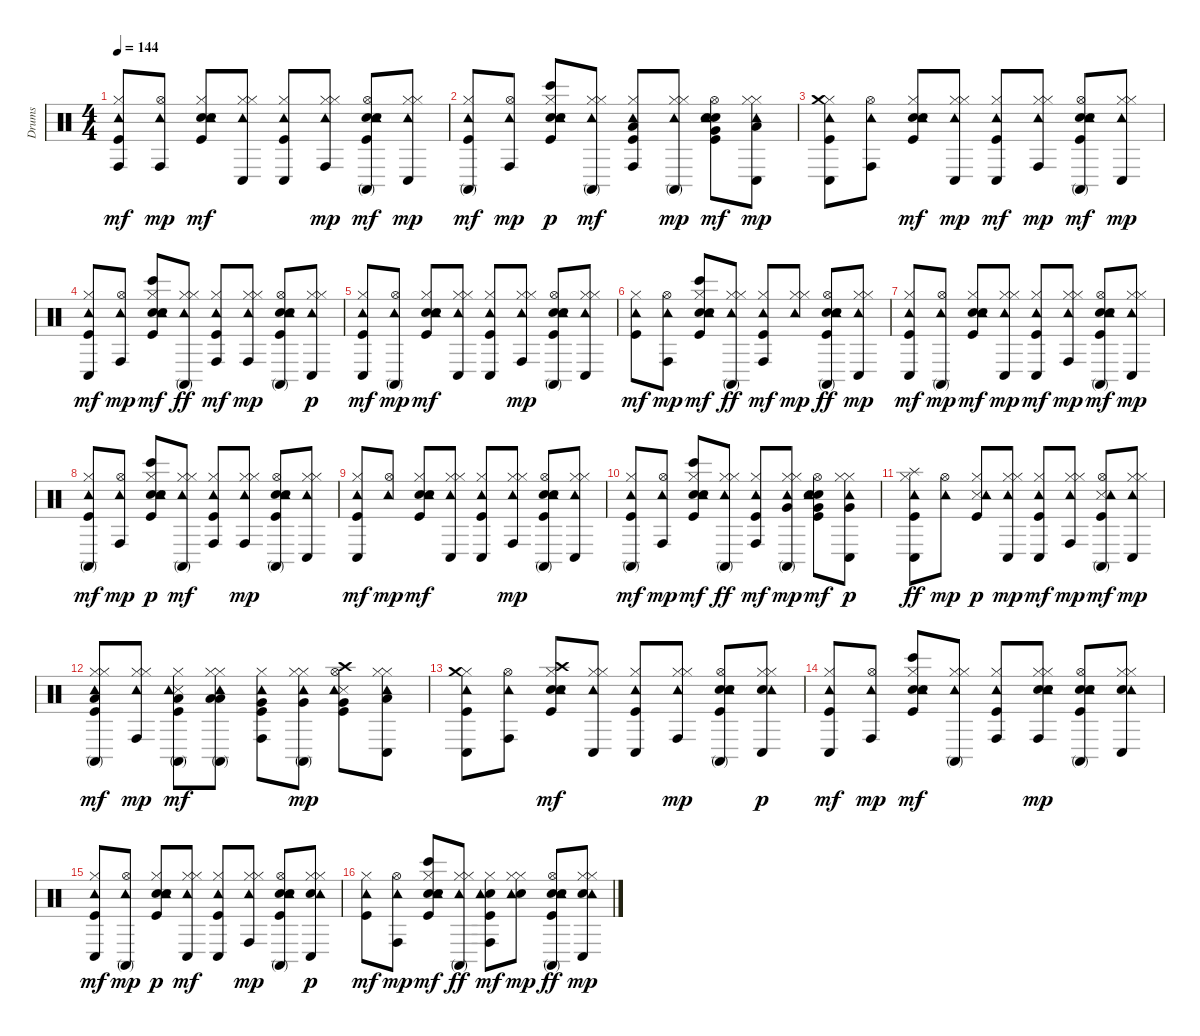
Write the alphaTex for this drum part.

\track ("Drums" "Drums") {instrument percussion}
\staff {score}
\articulation defaults
\ts (4 4)
\tempo 144
\clef neutral
\ks c
("Kick (hit)" "Hi-Hat (closed)" "Tambourine (hit)" "Conga high (hit)").8{dy mf} ("Hi-Hat (open)" "Tambourine (hit)" "Conga high (hit)").8{dy mp} ("Kick (hit)" "Snare (hit) 2" "Hand Clap (hit)" "Hi-Hat (closed)" "Tambourine (hit)").8{dy mf} ("Hi-Hat (closed)" "Tambourine (hit)" "Conga low (hit)" "Hi-Hat (closed)").8 ("Kick (hit)" "Hi-Hat (closed)" "Tambourine (hit)" "Conga low (hit)").8 ("Hi-Hat (closed)" "Tambourine (hit)" "Conga high (hit)" "Hi-Hat (closed)").8{dy mp} ("Kick (hit)" "Snare (hit) 2" "Hand Clap (hit)" "Hi-Hat (open)" "Tambourine (hit)" "Conga high (mute)").8{dy mf} ("Hi-Hat (closed)" "Tambourine (hit)" "Conga low (hit)" "Hi-Hat (closed)").8{dy mp} |
("Kick (hit)" "Hi-Hat (closed)" "Tambourine (hit)" "Conga high (mute)").8{dy mf} ("Hi-Hat (open)" "Tambourine (hit)" "Conga high (hit)").8{dy mp} ("Kick (hit)" "Snare (hit) 2" "Hand Clap (hit)" "Hi-Hat (closed)" "Tambourine (hit)" "Bongo High (hit)").8{dy p} ("Hi-Hat (closed)" "Tambourine (hit)" "Conga high (mute)" "Hi-Hat (closed)").8{dy mf} ("Kick (hit)" "Hi-Hat (closed)" "Low Tom (hit)" "Tambourine (hit)" "Conga high (hit)").8 ("Hi-Hat (closed)" "Tambourine (hit)" "Conga high (mute)" "Hi-Hat (closed)").8{dy mp} ("Kick (hit)" "Snare (hit) 2" "Hand Clap (hit)" "Very Low Tom (hit)" "Hi-Hat (open)" "Tambourine (hit)").8{dy mf} ("Low Floor Tom (hit)" "Hi-Hat (closed)" "Tambourine (hit)" "Conga low (hit)" "Hi-Hat (closed)").8{dy mp} |
("Kick (hit)" "Hi-Hat (closed)" "Tambourine (hit)" "Crash medium (hit)" "Conga low (hit)").8 ("Hi-Hat (open)" "Tambourine (hit)" "Conga high (hit)").8 ("Kick (hit)" "Snare (hit) 2" "Hand Clap (hit)" "Hi-Hat (closed)" "Tambourine (hit)").8{dy mf} ("Hi-Hat (closed)" "Tambourine (hit)" "Conga low (hit)" "Hi-Hat (closed)").8{dy mp} ("Kick (hit)" "Hi-Hat (closed)" "Tambourine (hit)" "Conga low (hit)").8{dy mf} ("Hi-Hat (closed)" "Tambourine (hit)" "Conga high (hit)" "Hi-Hat (closed)").8{dy mp} ("Kick (hit)" "Snare (hit) 2" "Hand Clap (hit)" "Hi-Hat (open)" "Tambourine (hit)" "Conga high (mute)").8{dy mf} ("Hi-Hat (closed)" "Tambourine (hit)" "Conga low (hit)" "Hi-Hat (closed)").8{dy mp} |
("Kick (hit)" "Hi-Hat (closed)" "Tambourine (hit)" "Conga low (hit)").8{dy mf} ("Hi-Hat (open)" "Tambourine (hit)" "Conga high (hit)").8{dy mp} ("Kick (hit)" "Snare (hit) 2" "Hand Clap (hit)" "Hi-Hat (closed)" "Tambourine (hit)" "Bongo High (hit)").8{dy mf} ("Hi-Hat (closed)" "Tambourine (hit)" "Conga high (mute)" "Hi-Hat (closed)").8{dy ff} ("Kick (hit)" "Hi-Hat (closed)" "Tambourine (hit)" "Conga high (hit)").8{dy mf} ("Hi-Hat (closed)" "Tambourine (hit)" "Conga high (hit)" "Hi-Hat (closed)").8{dy mp} ("Kick (hit)" "Snare (hit) 2" "Hand Clap (hit)" "Hi-Hat (open)" "Tambourine (hit)" "Conga high (mute)").8 ("Hi-Hat (closed)" "Tambourine (hit)" "Conga low (hit)" "Hi-Hat (closed)").8{dy p} |
("Kick (hit)" "Hi-Hat (closed)" "Tambourine (hit)" "Conga low (hit)").8{dy mf} ("Hi-Hat (open)" "Tambourine (hit)" "Conga high (mute)").8{dy mp} ("Kick (hit)" "Snare (hit) 2" "Hand Clap (hit)" "Hi-Hat (closed)" "Tambourine (hit)").8{dy mf} ("Hi-Hat (closed)" "Tambourine (hit)" "Conga low (hit)" "Hi-Hat (closed)").8 ("Kick (hit)" "Hi-Hat (closed)" "Tambourine (hit)" "Conga low (hit)").8 ("Hi-Hat (closed)" "Tambourine (hit)" "Conga high (hit)" "Hi-Hat (closed)").8{dy mp} ("Kick (hit)" "Snare (hit) 2" "Hand Clap (hit)" "Hi-Hat (open)" "Tambourine (hit)" "Conga high (mute)").8 ("Hi-Hat (closed)" "Tambourine (hit)" "Conga low (hit)" "Hi-Hat (closed)").8 |
("Kick (hit)" "Hi-Hat (closed)" "Tambourine (hit)").8{dy mf} ("Hi-Hat (open)" "Tambourine (hit)" "Conga high (hit)").8{dy mp} ("Kick (hit)" "Snare (hit) 2" "Hand Clap (hit)" "Hi-Hat (closed)" "Tambourine (hit)" "Bongo High (hit)").8{dy mf} ("Hi-Hat (closed)" "Tambourine (hit)" "Conga high (mute)" "Hi-Hat (closed)").8{dy ff} ("Kick (hit)" "Hi-Hat (closed)" "Tambourine (hit)" "Conga high (hit)").8{dy mf} ("Hi-Hat (closed)" "Tambourine (hit)" "Hi-Hat (closed)").8{dy mp} ("Kick (hit)" "Snare (hit) 2" "Hand Clap (hit)" "Hi-Hat (open)" "Tambourine (hit)" "Conga high (mute)").8{dy ff} ("Hi-Hat (closed)" "Tambourine (hit)" "Conga low (hit)" "Hi-Hat (closed)").8{dy mp} |
("Kick (hit)" "Hi-Hat (closed)" "Tambourine (hit)" "Conga low (hit)").8{dy mf} ("Hi-Hat (open)" "Tambourine (hit)" "Conga high (mute)").8{dy mp} ("Kick (hit)" "Snare (hit) 2" "Hand Clap (hit)" "Hi-Hat (closed)" "Tambourine (hit)").8{dy mf} ("Hi-Hat (closed)" "Tambourine (hit)" "Conga low (hit)" "Hi-Hat (closed)").8{dy mp} ("Kick (hit)" "Hi-Hat (closed)" "Tambourine (hit)" "Conga low (hit)").8{dy mf} ("Hi-Hat (closed)" "Tambourine (hit)" "Conga high (hit)" "Hi-Hat (closed)").8{dy mp} ("Kick (hit)" "Snare (hit) 2" "Hand Clap (hit)" "Hi-Hat (open)" "Tambourine (hit)" "Conga high (mute)").8{dy mf} ("Hi-Hat (closed)" "Tambourine (hit)" "Conga low (hit)" "Hi-Hat (closed)").8{dy mp} |
("Kick (hit)" "Hi-Hat (closed)" "Tambourine (hit)" "Conga high (mute)").8{dy mf} ("Hi-Hat (open)" "Tambourine (hit)" "Conga high (hit)").8{dy mp} ("Kick (hit)" "Snare (hit) 2" "Hand Clap (hit)" "Hi-Hat (closed)" "Tambourine (hit)" "Bongo High (hit)").8{dy p} ("Hi-Hat (closed)" "Tambourine (hit)" "Conga high (mute)" "Hi-Hat (closed)").8{dy mf} ("Kick (hit)" "Hi-Hat (closed)" "Tambourine (hit)" "Conga high (hit)").8 ("Hi-Hat (closed)" "Tambourine (hit)" "Conga high (hit)" "Hi-Hat (closed)").8{dy mp} ("Kick (hit)" "Snare (hit) 2" "Hand Clap (hit)" "Hi-Hat (open)" "Tambourine (hit)" "Conga high (mute)").8 ("Hi-Hat (closed)" "Tambourine (hit)" "Conga low (hit)" "Hi-Hat (closed)").8 |
("Kick (hit)" "Hi-Hat (closed)" "Tambourine (hit)" "Conga low (hit)").8{dy mf} ("Hi-Hat (open)" "Tambourine (hit)").8{dy mp} ("Kick (hit)" "Snare (hit) 2" "Hand Clap (hit)" "Hi-Hat (closed)" "Tambourine (hit)").8{dy mf} ("Hi-Hat (closed)" "Tambourine (hit)" "Conga low (hit)" "Hi-Hat (closed)").8 ("Kick (hit)" "Hi-Hat (closed)" "Tambourine (hit)" "Conga low (hit)").8 ("Hi-Hat (closed)" "Tambourine (hit)" "Conga high (hit)" "Hi-Hat (closed)").8{dy mp} ("Kick (hit)" "Snare (hit) 2" "Hand Clap (hit)" "Hi-Hat (open)" "Tambourine (hit)" "Conga high (mute)").8 ("Hi-Hat (closed)" "Tambourine (hit)" "Conga low (hit)" "Hi-Hat (closed)").8 |
("Kick (hit)" "Hi-Hat (closed)" "Tambourine (hit)" "Conga high (mute)").8{dy mf} ("Hi-Hat (open)" "Tambourine (hit)" "Conga high (hit)").8{dy mp} ("Kick (hit)" "Snare (hit) 2" "Hand Clap (hit)" "Hi-Hat (closed)" "Tambourine (hit)" "Bongo High (hit)").8{dy mf} ("Hi-Hat (closed)" "Tambourine (hit)" "Conga high (mute)" "Hi-Hat (closed)").8{dy ff} ("Kick (hit)" "Hi-Hat (closed)" "Tambourine (hit)" "Conga high (hit)").8{dy mf} ("Hi-Hat (closed)" "Very Low Tom (hit)" "Tambourine (hit)" "Conga high (mute)" "Hi-Hat (closed)").8{dy mp} ("Kick (hit)" "Snare (hit) 2" "Hand Clap (hit)" "Very Low Tom (hit)" "Hi-Hat (open)" "Tambourine (hit)").8{dy mf} ("Hi-Hat (closed)" "Very Low Tom (hit)" "Tambourine (hit)" "Conga low (hit)" "Hi-Hat (closed)").8{dy p} |
("Kick (hit)" "Hi-Hat (closed)" "Tambourine (hit)" "Splash (hit)" "Conga low (hit)").8{dy ff} ("Hi-Hat (open)" "Tambourine (hit)").8{dy mp} ("Kick (hit)" "Snare (side stick) 3" "Hi-Hat (closed)" "Tambourine (hit)").8{dy p} ("Hi-Hat (closed)" "Tambourine (hit)" "Conga low (hit)" "Hi-Hat (closed)").8{dy mp} ("Kick (hit)" "Hi-Hat (closed)" "Tambourine (hit)" "Conga low (hit)").8{dy mf} ("Hi-Hat (closed)" "Tambourine (hit)" "Conga high (hit)" "Hi-Hat (closed)").8{dy mp} ("Kick (hit)" "Snare (side stick) 3" "Hi-Hat (open)" "Tambourine (hit)" "Conga high (mute)").8{dy mf} ("Hi-Hat (closed)" "Tambourine (hit)" "Conga low (hit)" "Hi-Hat (closed)").8{dy mp} |
("Kick (hit)" "Low Floor Tom (hit)" "Hi-Hat (closed)" "Tambourine (hit)" "Hi-Hat (closed)" "Conga high (mute)").8{dy mf} ("Hi-Hat (closed)" "Tambourine (hit)" "Conga high (hit)" "Hi-Hat (closed)").8{dy mp} ("Kick (hit)" "Snare (side stick) 3" "Hi-Hat (closed)" "Tambourine (hit)" "Conga high (mute)" "Low Floor Tom (hit)").8{dy mf} ("Low Floor Tom (hit)" "Hi-Hat (closed)" "Tambourine (hit)" "Conga high (mute)" "Low Floor Tom (hit)" "Hi-Hat (closed)").8 ("Kick (hit)" "Hi-Hat (closed)" "Tambourine (hit)" "Conga high (hit)" "Very Low Tom (hit)").8 ("Hi-Hat (closed)" "Very Low Tom (hit)" "Tambourine (hit)" "Conga high (mute)" "Hi-Hat (closed)").8{dy mp} ("Kick (hit)" "Snare (side stick) 3" "Very Low Tom (hit)" "Hi-Hat (open)" "Crash high (hit)" "Tambourine (hit)").8 ("Low Floor Tom (hit)" "Hi-Hat (closed)" "Tambourine (hit)" "Conga low (hit)" "Hi-Hat (closed)").8 |
("Kick (hit)" "Hi-Hat (closed)" "Tambourine (hit)" "Crash medium (hit)" "Conga low (hit)").8 ("Hi-Hat (open)" "Tambourine (hit)" "Conga high (hit)").8 ("Kick (hit)" "Snare (hit) 2" "Hand Clap (hit)" "Hi-Hat (closed)" "Crash high (hit)" "Tambourine (hit)").8{dy mf} ("Hi-Hat (closed)" "Tambourine (hit)" "Conga low (hit)" "Hi-Hat (closed)").8 ("Kick (hit)" "Hi-Hat (closed)" "Tambourine (hit)" "Conga low (hit)").8 ("Hi-Hat (closed)" "Tambourine (hit)" "Conga high (hit)" "Hi-Hat (closed)").8{dy mp} ("Kick (hit)" "Snare (hit) 2" "Hand Clap (hit)" "Hi-Hat (open)" "Tambourine (hit)" "Conga high (mute)").8 ("Hand Clap (hit)" "Hi-Hat (closed)" "Tambourine (hit)" "Conga low (hit)" "Hi-Hat (closed)").8{dy p} |
("Kick (hit)" "Hi-Hat (closed)" "Tambourine (hit)" "Conga low (hit)").8{dy mf} ("Hi-Hat (open)" "Tambourine (hit)" "Conga high (hit)").8{dy mp} ("Kick (hit)" "Snare (hit) 2" "Hand Clap (hit)" "Hi-Hat (closed)" "Tambourine (hit)" "Bongo High (hit)").8{dy mf} ("Hi-Hat (closed)" "Tambourine (hit)" "Conga high (mute)" "Hi-Hat (closed)").8 ("Kick (hit)" "Hi-Hat (closed)" "Tambourine (hit)" "Conga high (hit)").8 ("Hand Clap (hit)" "Hi-Hat (closed)" "Tambourine (hit)" "Conga high (hit)" "Hand Clap (hit)" "Hi-Hat (closed)").8{dy mp} ("Kick (hit)" "Snare (hit) 2" "Hand Clap (hit)" "Hi-Hat (open)" "Tambourine (hit)" "Conga high (mute)").8 ("Hand Clap (hit)" "Hi-Hat (closed)" "Tambourine (hit)" "Conga low (hit)" "Hi-Hat (closed)").8 |
("Kick (hit)" "Hi-Hat (closed)" "Tambourine (hit)" "Conga low (hit)").8{dy mf} ("Hi-Hat (open)" "Tambourine (hit)" "Conga high (mute)").8{dy mp} ("Kick (hit)" "Snare (hit) 2" "Hand Clap (hit)" "Hi-Hat (closed)" "Tambourine (hit)").8{dy p} ("Hi-Hat (closed)" "Tambourine (hit)" "Conga low (hit)" "Hi-Hat (closed)").8{dy mf} ("Kick (hit)" "Hi-Hat (closed)" "Tambourine (hit)" "Conga low (hit)").8 ("Hi-Hat (closed)" "Tambourine (hit)" "Conga high (hit)" "Hi-Hat (closed)").8{dy mp} ("Kick (hit)" "Snare (hit) 2" "Hand Clap (hit)" "Hi-Hat (open)" "Tambourine (hit)" "Conga high (mute)").8 ("Hand Clap (hit)" "Hi-Hat (closed)" "Tambourine (hit)" "Conga low (hit)" "Hi-Hat (closed)").8{dy p} |
("Kick (hit)" "Hi-Hat (closed)" "Tambourine (hit)").8{dy mf} ("Hi-Hat (open)" "Tambourine (hit)" "Conga high (hit)").8{dy mp} ("Kick (hit)" "Snare (hit) 2" "Hand Clap (hit)" "Hi-Hat (closed)" "Tambourine (hit)" "Bongo High (hit)").8{dy mf} ("Hi-Hat (closed)" "Tambourine (hit)" "Conga high (mute)" "Hi-Hat (closed)").8{dy ff} ("Kick (hit)" "Hand Clap (hit)" "Hi-Hat (closed)" "Tambourine (hit)" "Conga high (hit)").8{dy mf} ("Hand Clap (hit)" "Hi-Hat (closed)" "Tambourine (hit)" "Hi-Hat (closed)").8{dy mp} ("Kick (hit)" "Snare (hit) 2" "Hand Clap (hit)" "Hi-Hat (open)" "Tambourine (hit)" "Conga high (mute)").8{dy ff} ("Hand Clap (hit)" "Hi-Hat (closed)" "Tambourine (hit)" "Conga low (hit)" "Hi-Hat (closed)").8{dy mp}
